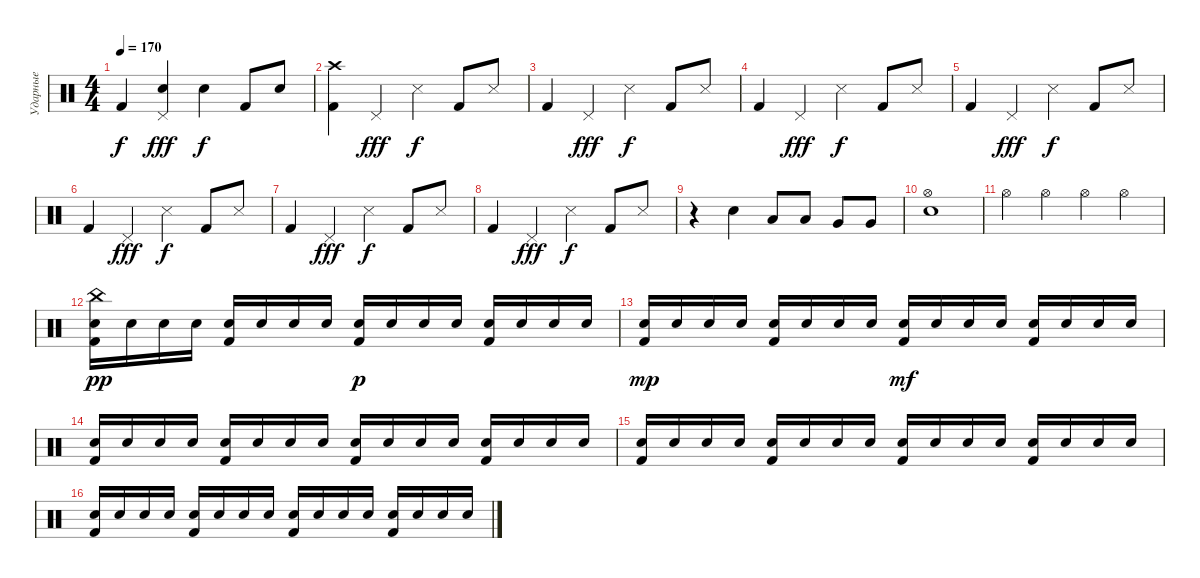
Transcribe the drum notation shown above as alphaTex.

\track ("Ударные" "Ударные") {instrument percussion}
\staff {score}
\articulation defaults
\ts (4 4)
\tempo 170
\clef neutral
\ks c "Kick (hit) 2".4{dy f}
("Pedal Hi-Hat (hit)" "Electric Snare (hit)").4{dy fff} "Electric Snare (hit)".4{dy f} "Kick (hit) 2".8 "Electric Snare (hit)".8 |
("Kick (hit) 2" "Crash high (hit)").4 "Pedal Hi-Hat (hit)".4{dy fff} "Snare (side stick) 3".4{dy f} "Kick (hit) 2".8 "Snare (side stick) 3".8 |
"Kick (hit) 2".4 "Pedal Hi-Hat (hit)".4{dy fff} "Snare (side stick) 3".4{dy f} "Kick (hit) 2".8 "Snare (side stick) 3".8 |
"Kick (hit) 2".4 "Pedal Hi-Hat (hit)".4{dy fff} "Snare (side stick) 3".4{dy f} "Kick (hit) 2".8 "Snare (side stick) 3".8 |
"Kick (hit) 2".4 "Pedal Hi-Hat (hit)".4{dy fff} "Snare (side stick) 3".4{dy f} "Kick (hit) 2".8 "Snare (side stick) 3".8 |
"Kick (hit) 2".4 "Pedal Hi-Hat (hit)".4{dy fff} "Snare (side stick) 3".4{dy f} "Kick (hit) 2".8 "Snare (side stick) 3".8 |
"Kick (hit) 2".4 "Pedal Hi-Hat (hit)".4{dy fff} "Snare (side stick) 3".4{dy f} "Kick (hit) 2".8 "Snare (side stick) 3".8 |
"Kick (hit) 2".4 "Pedal Hi-Hat (hit)".4{dy fff} "Snare (side stick) 3".4{dy f} "Kick (hit) 2".8 "Snare (side stick) 3".8 |
r.4 "Electric Snare (hit)".4 "Low Tom (hit)".8 "Low Tom (hit)".8 "Very Low Tom (hit)".8 "Very Low Tom (hit)".8 |
("Electric Snare (hit)" "Hi-Hat (open)").1 |
"Hi-Hat (open)".4 "Hi-Hat (open)".4 "Hi-Hat (open)".4 "Hi-Hat (open)".4 |
("China (hit)" "Kick (hit) 2" "Electric Snare (hit)").16{dy pp} "Electric Snare (hit)".16 "Electric Snare (hit)".16 "Electric Snare (hit)".16 ("Kick (hit) 2" "Electric Snare (hit)").16 "Electric Snare (hit)".16 "Electric Snare (hit)".16 "Electric Snare (hit)".16 ("Kick (hit) 2" "Electric Snare (hit)").16{dy p} "Electric Snare (hit)".16 "Electric Snare (hit)".16 "Electric Snare (hit)".16 ("Kick (hit) 2" "Electric Snare (hit)").16 "Electric Snare (hit)".16 "Electric Snare (hit)".16 "Electric Snare (hit)".16 |
("Kick (hit) 2" "Electric Snare (hit)").16{dy mp} "Electric Snare (hit)".16 "Electric Snare (hit)".16 "Electric Snare (hit)".16 ("Kick (hit) 2" "Electric Snare (hit)").16 "Electric Snare (hit)".16 "Electric Snare (hit)".16 "Electric Snare (hit)".16 ("Kick (hit) 2" "Electric Snare (hit)").16{dy mf} "Electric Snare (hit)".16 "Electric Snare (hit)".16 "Electric Snare (hit)".16 ("Kick (hit) 2" "Electric Snare (hit)").16 "Electric Snare (hit)".16 "Electric Snare (hit)".16 "Electric Snare (hit)".16 |
("Kick (hit) 2" "Electric Snare (hit)").16 "Electric Snare (hit)".16 "Electric Snare (hit)".16 "Electric Snare (hit)".16 ("Kick (hit) 2" "Electric Snare (hit)").16 "Electric Snare (hit)".16 "Electric Snare (hit)".16 "Electric Snare (hit)".16 ("Kick (hit) 2" "Electric Snare (hit)").16 "Electric Snare (hit)".16 "Electric Snare (hit)".16 "Electric Snare (hit)".16 ("Kick (hit) 2" "Electric Snare (hit)").16 "Electric Snare (hit)".16 "Electric Snare (hit)".16 "Electric Snare (hit)".16 |
("Kick (hit) 2" "Electric Snare (hit)").16 "Electric Snare (hit)".16 "Electric Snare (hit)".16 "Electric Snare (hit)".16 ("Kick (hit) 2" "Electric Snare (hit)").16 "Electric Snare (hit)".16 "Electric Snare (hit)".16 "Electric Snare (hit)".16 ("Kick (hit) 2" "Electric Snare (hit)").16 "Electric Snare (hit)".16 "Electric Snare (hit)".16 "Electric Snare (hit)".16 ("Kick (hit) 2" "Electric Snare (hit)").16 "Electric Snare (hit)".16 "Electric Snare (hit)".16 "Electric Snare (hit)".16 |
("Kick (hit) 2" "Electric Snare (hit)").16 "Electric Snare (hit)".16 "Electric Snare (hit)".16 "Electric Snare (hit)".16 ("Kick (hit) 2" "Electric Snare (hit)").16 "Electric Snare (hit)".16 "Electric Snare (hit)".16 "Electric Snare (hit)".16 ("Kick (hit) 2" "Electric Snare (hit)").16 "Electric Snare (hit)".16 "Electric Snare (hit)".16 "Electric Snare (hit)".16 ("Kick (hit) 2" "Electric Snare (hit)").16 "Electric Snare (hit)".16 "Electric Snare (hit)".16 "Electric Snare (hit)".16
